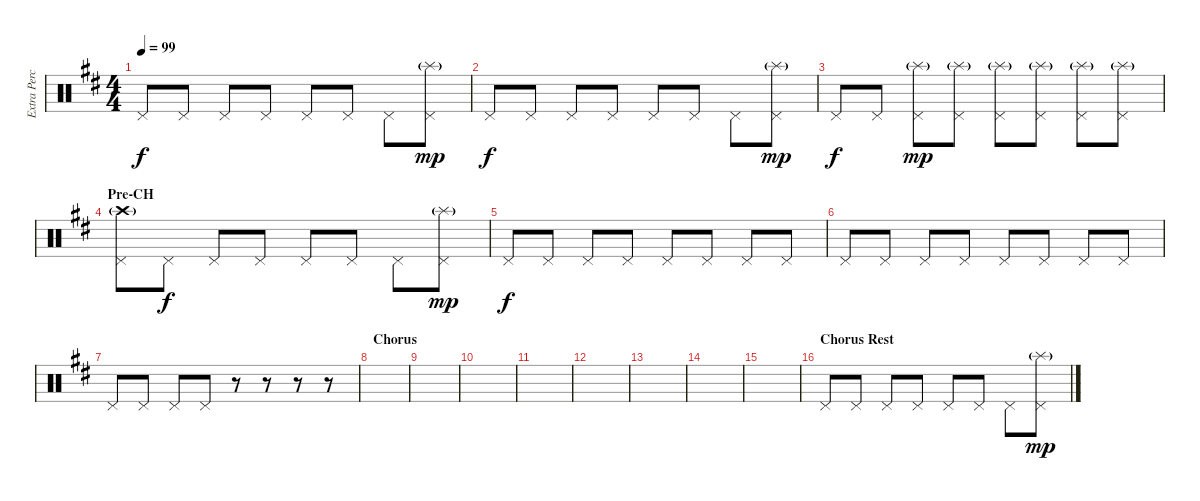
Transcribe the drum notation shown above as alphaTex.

\track ("Extra Percussion" "Extra Perc") {instrument percussion}
\staff {score}
\articulation defaults
\ts (4 4)
\tempo 99
\clef neutral
\ks d "Pedal Hi-Hat (hit)".8{dy f} "Pedal Hi-Hat (hit)".8 "Pedal Hi-Hat (hit)".8 "Pedal Hi-Hat (hit)".8 "Pedal Hi-Hat (hit)".8 "Pedal Hi-Hat (hit)".8 "Pedal Hi-Hat (hit)".8
("Pedal Hi-Hat (hit)" "Splash (hit)"{g}).8{dy mp} |
"Pedal Hi-Hat (hit)".8{dy f} "Pedal Hi-Hat (hit)".8 "Pedal Hi-Hat (hit)".8 "Pedal Hi-Hat (hit)".8 "Pedal Hi-Hat (hit)".8 "Pedal Hi-Hat (hit)".8 "Pedal Hi-Hat (hit)".8 ("Pedal Hi-Hat (hit)" "Splash (hit)"{g}).8{dy mp} |
"Pedal Hi-Hat (hit)".8{dy f} "Pedal Hi-Hat (hit)".8 ("Pedal Hi-Hat (hit)" "Splash (hit)"{g}).8{dy mp} ("Pedal Hi-Hat (hit)" "Splash (hit)"{g}).8 ("Pedal Hi-Hat (hit)" "Splash (hit)"{g}).8 ("Pedal Hi-Hat (hit)" "Splash (hit)"{g}).8 ("Pedal Hi-Hat (hit)" "Splash (hit)"{g}).8 ("Pedal Hi-Hat (hit)" "Splash (hit)"{g}).8 |
\section ("" "Pre-CH")
("Pedal Hi-Hat (hit)" "Crash high (hit)"{g}).8 "Pedal Hi-Hat (hit)".8{dy f} "Pedal Hi-Hat (hit)".8 "Pedal Hi-Hat (hit)".8 "Pedal Hi-Hat (hit)".8 "Pedal Hi-Hat (hit)".8 "Pedal Hi-Hat (hit)".8 ("Pedal Hi-Hat (hit)" "Splash (hit)"{g}).8{dy mp} |
"Pedal Hi-Hat (hit)".8{dy f} "Pedal Hi-Hat (hit)".8 "Pedal Hi-Hat (hit)".8 "Pedal Hi-Hat (hit)".8 "Pedal Hi-Hat (hit)".8 "Pedal Hi-Hat (hit)".8 "Pedal Hi-Hat (hit)".8 "Pedal Hi-Hat (hit)".8 |
"Pedal Hi-Hat (hit)".8 "Pedal Hi-Hat (hit)".8 "Pedal Hi-Hat (hit)".8 "Pedal Hi-Hat (hit)".8 "Pedal Hi-Hat (hit)".8 "Pedal Hi-Hat (hit)".8 "Pedal Hi-Hat (hit)".8 "Pedal Hi-Hat (hit)".8 |
"Pedal Hi-Hat (hit)".8 "Pedal Hi-Hat (hit)".8 "Pedal Hi-Hat (hit)".8 "Pedal Hi-Hat (hit)".8 r.8 r.8 r.8 r.8 |
\section ("" "Chorus")
|
|
|
|
|
|
|
|
\section ("" "Chorus Rest")
"Pedal Hi-Hat (hit)".8 "Pedal Hi-Hat (hit)".8 "Pedal Hi-Hat (hit)".8 "Pedal Hi-Hat (hit)".8 "Pedal Hi-Hat (hit)".8 "Pedal Hi-Hat (hit)".8 "Pedal Hi-Hat (hit)".8 ("Pedal Hi-Hat (hit)" "Splash (hit)"{g}).8{dy mp}
